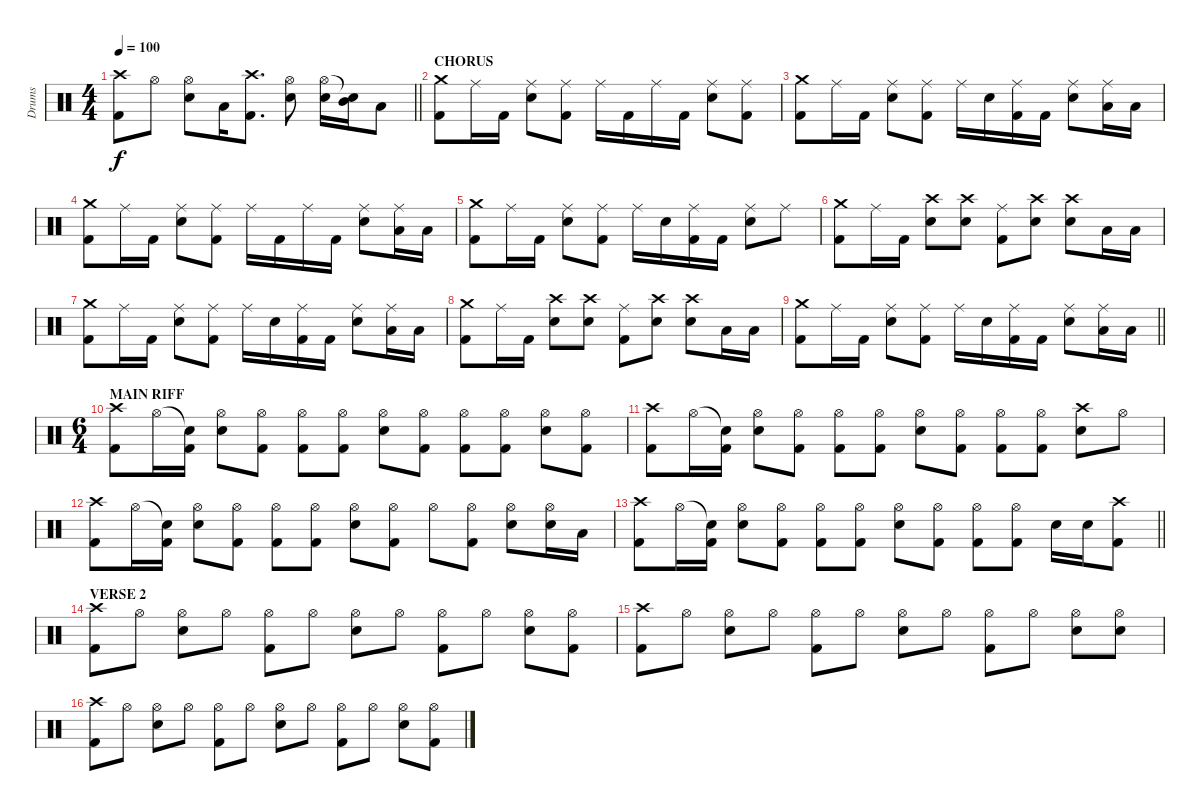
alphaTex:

\track ("Drums" "Drums") {instrument percussion}
\staff {score}
\articulation defaults
\ts (4 4)
\tempo 100
\clef neutral
\barLineRight lightlight
\ks c
("Crash high (hit)" "Kick (hit) 2").8{dy f} "Hi-Hat (open)".8 ("Hi-Hat (open)" "Snare (hit) 2").8 "Low Tom (hit)".16 ("Crash high (hit)" "Kick (hit) 2").8{d} ("Hi-Hat (open)" "Snare (hit) 2").8 ("Hi-Hat (open)" "Snare (hit) 2").16 ("Snare (hit)"{t} "Mid Tom (hit)").16 "Low Tom (hit)".8 |
\section ("" "CHORUS")
("Crash medium (hit)" "Kick (hit) 2").8 "Ride (middle)".16 "Kick (hit) 2".16 ("Ride (middle)" "Snare (hit) 2").8 ("Ride (middle)" "Kick (hit) 2").8 "Ride (middle)".16 "Kick (hit) 2".16 "Ride (middle)".16 "Kick (hit) 2".16 ("Ride (middle)" "Snare (hit) 2").8 ("Ride (middle)" "Kick (hit) 2").8 |
("Crash medium (hit)" "Kick (hit) 2").8 "Ride (middle)".16 "Kick (hit) 2".16 ("Ride (middle)" "Snare (hit) 2").8 ("Ride (middle)" "Kick (hit) 2").8 "Ride (middle)".16 "Snare (hit) 2".16 ("Ride (middle)" "Kick (hit) 2").16 "Kick (hit) 2".16 ("Ride (middle)" "Snare (hit) 2").8 ("Ride (middle)" "Low Tom (hit)").16 "Low Tom (hit)".16 |
("Crash medium (hit)" "Kick (hit) 2").8 "Ride (middle)".16 "Kick (hit) 2".16 ("Ride (middle)" "Snare (hit) 2").8 ("Ride (middle)" "Kick (hit) 2").8 "Ride (middle)".16 "Kick (hit) 2".16 "Ride (middle)".16 "Kick (hit) 2".16 ("Ride (middle)" "Snare (hit) 2").8 ("Ride (middle)" "Low Tom (hit)").16 "Low Tom (hit)".16 |
("Crash medium (hit)" "Kick (hit) 2").8 "Ride (middle)".16 "Kick (hit) 2".16 ("Ride (middle)" "Snare (hit) 2").8 ("Ride (middle)" "Kick (hit) 2").8 "Ride (middle)".16 "Snare (hit) 2".16 ("Ride (middle)" "Kick (hit) 2").16 "Kick (hit) 2".16 ("Ride (middle)" "Snare (hit) 2").8 "Ride (middle)".8 |
("Crash medium (hit)" "Kick (hit) 2").8 "Ride (middle)".16 "Kick (hit) 2".16 ("Crash high (hit)" "Snare (hit) 2").8 ("Crash high (hit)" "Snare (hit) 2").8 ("Ride (middle)" "Kick (hit) 2").8 ("Crash high (hit)" "Snare (hit) 2").8 ("Crash high (hit)" "Snare (hit) 2").8 "Low Tom (hit)".16 "Low Tom (hit)".16 |
("Crash medium (hit)" "Kick (hit) 2").8 "Ride (middle)".16 "Kick (hit) 2".16 ("Ride (middle)" "Snare (hit) 2").8 ("Ride (middle)" "Kick (hit) 2").8 "Ride (middle)".16 "Snare (hit) 2".16 ("Ride (middle)" "Kick (hit) 2").16 "Kick (hit) 2".16 ("Ride (middle)" "Snare (hit) 2").8 ("Ride (middle)" "Low Tom (hit)").16 "Low Tom (hit)".16 |
("Crash medium (hit)" "Kick (hit) 2").8 "Ride (middle)".16 "Kick (hit) 2".16 ("Crash high (hit)" "Snare (hit) 2").8 ("Crash high (hit)" "Snare (hit) 2").8 ("Ride (middle)" "Kick (hit) 2").8 ("Crash high (hit)" "Snare (hit) 2").8 ("Crash high (hit)" "Snare (hit) 2").8 "Low Tom (hit)".16 "Low Tom (hit)".16 |
\barLineRight lightlight
("Crash medium (hit)" "Kick (hit) 2").8 "Ride (middle)".16 "Kick (hit) 2".16 ("Ride (middle)" "Snare (hit) 2").8 ("Ride (middle)" "Kick (hit) 2").8 "Ride (middle)".16 "Snare (hit) 2".16 ("Ride (middle)" "Kick (hit) 2").16 "Kick (hit) 2".16 ("Ride (middle)" "Snare (hit) 2").8 ("Ride (middle)" "Low Tom (hit)").16 "Low Tom (hit)".16 |
\ts (6 4)
\section ("" "MAIN RIFF")
("Crash high (hit)" "Kick (hit) 2").8 "Hi-Hat (open)".16 ("Snare (hit)"{t} "Kick (hit) 2").16 ("Hi-Hat (open)" "Snare (hit) 2").8 ("Hi-Hat (open)" "Kick (hit) 2").8 ("Hi-Hat (open)" "Kick (hit) 2").8 ("Hi-Hat (open)" "Kick (hit) 2").8 ("Hi-Hat (open)" "Snare (hit) 2").8 ("Hi-Hat (open)" "Kick (hit) 2").8 ("Hi-Hat (open)" "Kick (hit) 2").8 ("Hi-Hat (open)" "Kick (hit) 2").8 ("Hi-Hat (open)" "Snare (hit) 2").8 ("Hi-Hat (open)" "Kick (hit) 2").8 |
("Crash high (hit)" "Kick (hit) 2").8 "Hi-Hat (open)".16 ("Snare (hit)"{t} "Kick (hit) 2").16 ("Hi-Hat (open)" "Snare (hit) 2").8 ("Hi-Hat (open)" "Kick (hit) 2").8 ("Hi-Hat (open)" "Kick (hit) 2").8 ("Hi-Hat (open)" "Kick (hit) 2").8 ("Hi-Hat (open)" "Snare (hit) 2").8 ("Hi-Hat (open)" "Kick (hit) 2").8 ("Hi-Hat (open)" "Kick (hit) 2").8 ("Hi-Hat (open)" "Kick (hit) 2").8 ("Crash high (hit)" "Snare (hit) 2").8 "Hi-Hat (open)".8 |
("Crash high (hit)" "Kick (hit) 2").8 "Hi-Hat (open)".16 ("Snare (hit)"{t} "Kick (hit) 2").16 ("Hi-Hat (open)" "Snare (hit) 2").8 ("Hi-Hat (open)" "Kick (hit) 2").8 ("Hi-Hat (open)" "Kick (hit) 2").8 ("Hi-Hat (open)" "Kick (hit) 2").8 ("Hi-Hat (open)" "Snare (hit) 2").8 ("Hi-Hat (open)" "Kick (hit) 2").8 "Hi-Hat (open)".8 ("Hi-Hat (open)" "Kick (hit) 2").8 ("Hi-Hat (open)" "Snare (hit) 2").8 ("Hi-Hat (open)" "Snare (hit) 2").16 "Low Tom (hit)".16 |
\barLineRight lightlight
("Crash high (hit)" "Kick (hit) 2").8 "Hi-Hat (open)".16 ("Snare (hit)"{t} "Kick (hit) 2").16 ("Hi-Hat (open)" "Snare (hit) 2").8 ("Hi-Hat (open)" "Kick (hit) 2").8 ("Hi-Hat (open)" "Kick (hit) 2").8 ("Hi-Hat (open)" "Kick (hit) 2").8 ("Hi-Hat (open)" "Snare (hit) 2").8 ("Hi-Hat (open)" "Kick (hit) 2").8 ("Hi-Hat (open)" "Kick (hit) 2").8 ("Hi-Hat (open)" "Kick (hit) 2").8 "Snare (hit) 2".16 "Snare (hit) 2".16 ("Crash high (hit)" "Kick (hit) 2").8 |
\section ("" "VERSE 2")
("Crash high (hit)" "Kick (hit) 2").8 "Hi-Hat (open)".8 ("Hi-Hat (open)" "Snare (hit) 2").8 "Hi-Hat (open)".8 ("Hi-Hat (open)" "Kick (hit) 2").8 "Hi-Hat (open)".8 ("Hi-Hat (open)" "Snare (hit) 2").8 "Hi-Hat (open)".8 ("Hi-Hat (open)" "Kick (hit) 2").8 "Hi-Hat (open)".8 ("Hi-Hat (open)" "Snare (hit) 2").8 ("Hi-Hat (open)" "Kick (hit) 2").8 |
("Crash high (hit)" "Kick (hit) 2").8 "Hi-Hat (open)".8 ("Hi-Hat (open)" "Snare (hit) 2").8 "Hi-Hat (open)".8 ("Hi-Hat (open)" "Kick (hit) 2").8 "Hi-Hat (open)".8 ("Hi-Hat (open)" "Snare (hit) 2").8 "Hi-Hat (open)".8 ("Hi-Hat (open)" "Kick (hit) 2").8 "Hi-Hat (open)".8 ("Hi-Hat (open)" "Snare (hit) 2").8 ("Hi-Hat (open)" "Snare (hit) 2").8 |
("Crash high (hit)" "Kick (hit) 2").8 "Hi-Hat (open)".8 ("Hi-Hat (open)" "Snare (hit) 2").8 "Hi-Hat (open)".8 ("Hi-Hat (open)" "Kick (hit) 2").8 "Hi-Hat (open)".8 ("Hi-Hat (open)" "Snare (hit) 2").8 "Hi-Hat (open)".8 ("Hi-Hat (open)" "Kick (hit) 2").8 "Hi-Hat (open)".8 ("Hi-Hat (open)" "Snare (hit) 2").8 ("Hi-Hat (open)" "Kick (hit) 2").8
